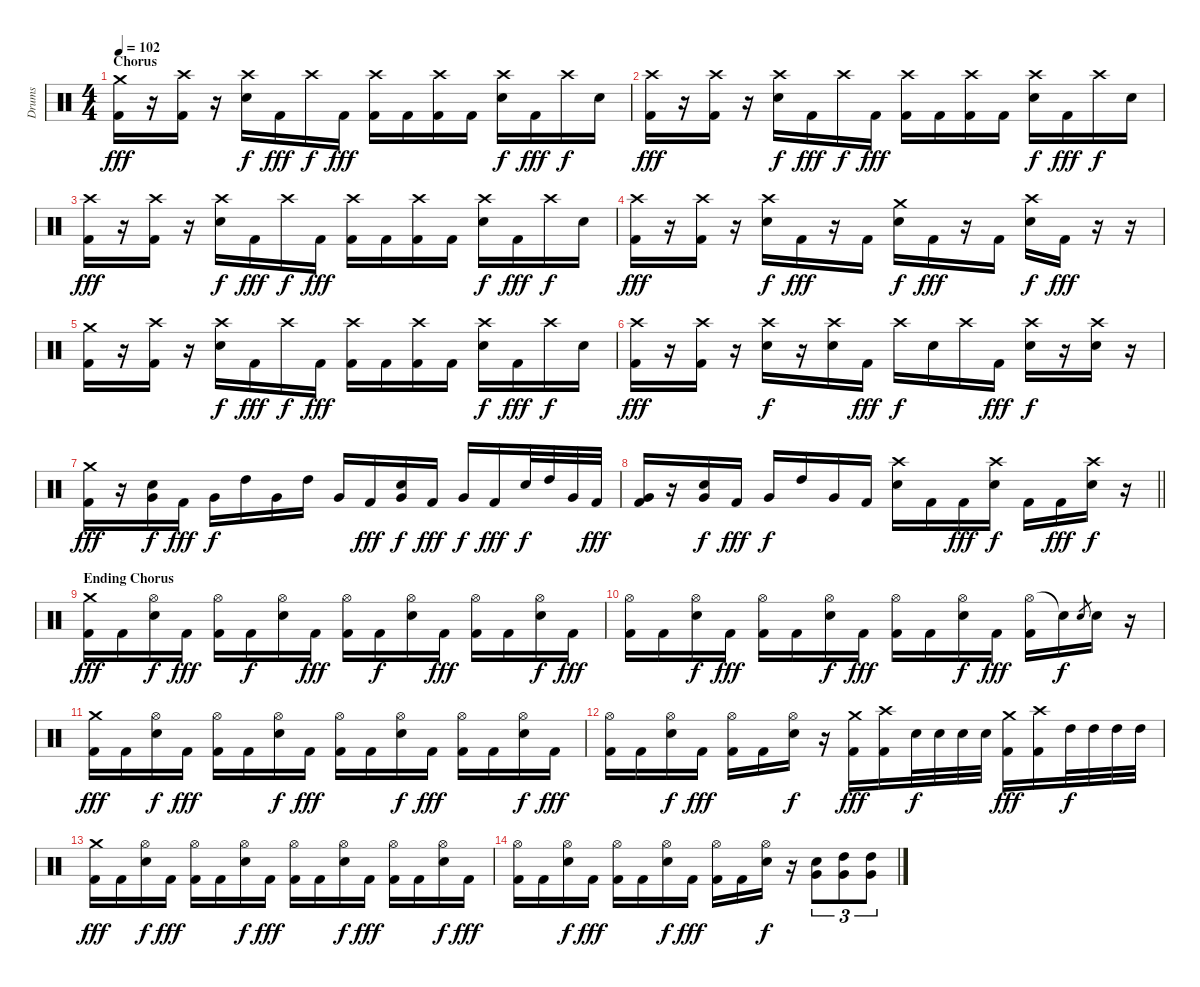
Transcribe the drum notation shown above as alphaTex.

\track ("Drums" "Drums") {instrument percussion}
\staff {score}
\articulation defaults
\ts (4 4)
\section ("" "Chorus")
\tempo 102
\clef neutral
\ks c
("Crash medium (hit)" "Kick (hit) 2").16{dy fff} r.16 ("Crash high (hit)" "Kick (hit) 2").16 r.16 ("Crash high (hit)" "Snare (hit) 2").16{dy f} "Kick (hit) 2".16{dy fff} "Crash high (hit)".16{dy f} "Kick (hit) 2".16{dy fff} ("Crash high (hit)" "Kick (hit) 2").16 "Kick (hit) 2".16 ("Crash high (hit)" "Kick (hit) 2").16 "Kick (hit) 2".16 ("Crash high (hit)" "Snare (hit) 2").16{dy f} "Kick (hit) 2".16{dy fff} "Crash high (hit)".16{dy f} "Snare (hit) 2".16 |
("Crash high (hit)" "Kick (hit) 2").16{dy fff} r.16 ("Crash high (hit)" "Kick (hit) 2").16 r.16 ("Crash high (hit)" "Snare (hit) 2").16{dy f} "Kick (hit) 2".16{dy fff} "Crash high (hit)".16{dy f} "Kick (hit) 2".16{dy fff} ("Crash high (hit)" "Kick (hit) 2").16 "Kick (hit) 2".16 ("Crash high (hit)" "Kick (hit) 2").16 "Kick (hit) 2".16 ("Crash high (hit)" "Snare (hit) 2").16{dy f} "Kick (hit) 2".16{dy fff} "Crash high (hit)".16{dy f} "Snare (hit) 2".16 |
("Crash high (hit)" "Kick (hit) 2").16{dy fff} r.16 ("Crash high (hit)" "Kick (hit) 2").16 r.16 ("Crash high (hit)" "Snare (hit) 2").16{dy f} "Kick (hit) 2".16{dy fff} "Crash high (hit)".16{dy f} "Kick (hit) 2".16{dy fff} ("Crash high (hit)" "Kick (hit) 2").16 "Kick (hit) 2".16 ("Crash high (hit)" "Kick (hit) 2").16 "Kick (hit) 2".16 ("Crash high (hit)" "Snare (hit) 2").16{dy f} "Kick (hit) 2".16{dy fff} "Crash high (hit)".16{dy f} "Snare (hit) 2".16 |
("Crash high (hit)" "Kick (hit) 2").16{dy fff} r.16 ("Crash high (hit)" "Kick (hit) 2").16 r.16 ("Crash high (hit)" "Snare (hit) 2").16{dy f} "Kick (hit) 2".16{dy fff} r.16 "Kick (hit) 2".16 ("Crash medium (hit)" "Snare (hit) 2").16{dy f} "Kick (hit) 2".16{dy fff} r.16 "Kick (hit) 2".16 ("Crash high (hit)" "Snare (hit) 2").16{dy f} "Kick (hit) 2".16{dy fff} r.16 r.16 |
("Crash medium (hit)" "Kick (hit) 2").16 r.16 ("Crash high (hit)" "Kick (hit) 2").16 r.16 ("Crash high (hit)" "Snare (hit) 2").16{dy f} "Kick (hit) 2".16{dy fff} "Crash high (hit)".16{dy f} "Kick (hit) 2".16{dy fff} ("Crash high (hit)" "Kick (hit) 2").16 "Kick (hit) 2".16 ("Crash high (hit)" "Kick (hit) 2").16 "Kick (hit) 2".16 ("Crash high (hit)" "Snare (hit) 2").16{dy f} "Kick (hit) 2".16{dy fff} "Crash high (hit)".16{dy f} "Snare (hit) 2".16 |
("Crash high (hit)" "Kick (hit) 2").16{dy fff} r.16 ("Crash high (hit)" "Kick (hit) 2").16 r.16 ("Crash high (hit)" "Snare (hit) 2").16{dy f} r.16 ("Crash high (hit)" "Snare (hit) 2").16 "Kick (hit) 2".16{dy fff} "Crash high (hit)".16{dy f} "Snare (hit) 2".16 "Crash high (hit)".16 "Kick (hit) 2".16{dy fff} ("Crash high (hit)" "Snare (hit) 2").16{dy f} r.16 ("Crash high (hit)" "Snare (hit) 2").16 r.16 |
("Crash medium (hit)" "Kick (hit) 2").16{dy fff} r.16 ("Snare (hit) 2" "Very Low Tom (hit)").16{dy f} "Kick (hit) 2".16{dy fff} "Very Low Tom (hit)".16{dy f} "High Tom (hit)".16 "Very Low Tom (hit)".16 "High Tom (hit)".16 "Very Low Tom (hit)".16 "Kick (hit) 2".16{dy fff} ("Snare (hit) 2" "Very Low Tom (hit)").16{dy f} "Kick (hit) 2".16{dy fff} "Very Low Tom (hit)".16{dy f} "Kick (hit) 2".16{dy fff} "Snare (hit) 2".32{dy f} "High Tom (hit)".32 "Very Low Tom (hit)".32 "Kick (hit) 2".32{dy fff} |
\barLineRight lightlight
("Very Low Tom (hit)" "Kick (hit) 2").16 r.16 ("Snare (hit) 2" "Very Low Tom (hit)").16{dy f} "Kick (hit) 2".16{dy fff} "Very Low Tom (hit)".16{dy f} "High Tom (hit)".16 "Very Low Tom (hit)".16 "Kick (hit) 2".16 ("Crash high (hit)" "Snare (hit) 2").16 "Kick (hit) 2".16 "Kick (hit) 2".16{dy fff} ("Crash high (hit)" "Snare (hit) 2").16{dy f} "Kick (hit) 2".16 "Kick (hit) 2".16{dy fff} ("Crash high (hit)" "Snare (hit) 2").16{dy f} r.16 |
\section ("" "Ending Chorus")
("Crash medium (hit)" "Kick (hit) 2").16{dy fff volume 13} "Kick (hit) 2".16 ("Hi-Hat (open)" "Snare (hit) 2").16{dy f} "Kick (hit) 2".16{dy fff} ("Hi-Hat (open)" "Kick (hit) 2").16 "Kick (hit) 2".16{dy f} ("Hi-Hat (open)" "Snare (hit) 2").16 "Kick (hit) 2".16{dy fff} ("Hi-Hat (open)" "Kick (hit) 2").16 "Kick (hit) 2".16{dy f} ("Hi-Hat (open)" "Snare (hit) 2").16 "Kick (hit) 2".16{dy fff} ("Hi-Hat (open)" "Kick (hit) 2").16 "Kick (hit) 2".16 ("Hi-Hat (open)" "Snare (hit) 2").16{dy f} "Kick (hit) 2".16{dy fff} |
("Hi-Hat (open)" "Kick (hit) 2").16 "Kick (hit) 2".16 ("Hi-Hat (open)" "Snare (hit) 2").16{dy f} "Kick (hit) 2".16{dy fff} ("Hi-Hat (open)" "Kick (hit) 2").16 "Kick (hit) 2".16 ("Hi-Hat (open)" "Snare (hit) 2").16{dy f} "Kick (hit) 2".16{dy fff} ("Hi-Hat (open)" "Kick (hit) 2").16 "Kick (hit) 2".16 ("Hi-Hat (open)" "Snare (hit) 2").16{dy f} "Kick (hit) 2".16{dy fff} ("Hi-Hat (open)" "Kick (hit) 2").16 "Snare (hit)"{t}.16{dy f} "Snare (hit) 2".8{gr} "Snare (hit) 2".16 r.16 |
("Crash medium (hit)" "Kick (hit) 2").16{dy fff} "Kick (hit) 2".16 ("Hi-Hat (open)" "Snare (hit) 2").16{dy f} "Kick (hit) 2".16{dy fff} ("Hi-Hat (open)" "Kick (hit) 2").16 "Kick (hit) 2".16 ("Hi-Hat (open)" "Snare (hit) 2").16{dy f} "Kick (hit) 2".16{dy fff} ("Hi-Hat (open)" "Kick (hit) 2").16 "Kick (hit) 2".16 ("Hi-Hat (open)" "Snare (hit) 2").16{dy f} "Kick (hit) 2".16{dy fff} ("Hi-Hat (open)" "Kick (hit) 2").16 "Kick (hit) 2".16 ("Hi-Hat (open)" "Snare (hit) 2").16{dy f} "Kick (hit) 2".16{dy fff} |
("Hi-Hat (open)" "Kick (hit) 2").16 "Kick (hit) 2".16 ("Hi-Hat (open)" "Snare (hit) 2").16{dy f} "Kick (hit) 2".16{dy fff} ("Hi-Hat (open)" "Kick (hit) 2").16 "Kick (hit) 2".16 ("Hi-Hat (open)" "Snare (hit) 2").16{dy f} r.16 ("Crash medium (hit)" "Kick (hit) 2").16{dy fff} ("Crash high (hit)" "Kick (hit) 2").16 "Snare (hit) 2".32{dy f} "Snare (hit) 2".32 "Snare (hit) 2".32 "Snare (hit) 2".32 ("Crash medium (hit)" "Kick (hit) 2").16{dy fff} ("Crash high (hit)" "Kick (hit) 2").16 "High Tom (hit)".32{dy f} "High Tom (hit)".32 "High Tom (hit)".32 "High Tom (hit)".32 |
("Crash medium (hit)" "Kick (hit) 2").16{dy fff} "Kick (hit) 2".16 ("Hi-Hat (open)" "Snare (hit) 2").16{dy f} "Kick (hit) 2".16{dy fff} ("Hi-Hat (open)" "Kick (hit) 2").16 "Kick (hit) 2".16 ("Hi-Hat (open)" "Snare (hit) 2").16{dy f} "Kick (hit) 2".16{dy fff} ("Hi-Hat (open)" "Kick (hit) 2").16 "Kick (hit) 2".16 ("Hi-Hat (open)" "Snare (hit) 2").16{dy f} "Kick (hit) 2".16{dy fff} ("Hi-Hat (open)" "Kick (hit) 2").16 "Kick (hit) 2".16 ("Hi-Hat (open)" "Snare (hit) 2").16{dy f} "Kick (hit) 2".16{dy fff} |
("Hi-Hat (open)" "Kick (hit) 2").16 "Kick (hit) 2".16 ("Hi-Hat (open)" "Snare (hit) 2").16{dy f} "Kick (hit) 2".16{dy fff} ("Hi-Hat (open)" "Kick (hit) 2").16 "Kick (hit) 2".16 ("Hi-Hat (open)" "Snare (hit) 2").16{dy f} "Kick (hit) 2".16{dy fff} ("Hi-Hat (open)" "Kick (hit) 2").16 "Kick (hit) 2".16 ("Hi-Hat (open)" "Snare (hit) 2").16{dy f} r.16 ("Snare (hit) 2" "Very Low Tom (hit)").8{tu (3 2)} ("High Tom (hit)" "Very Low Tom (hit)").8{tu (3 2)} ("High Tom (hit)" "Very Low Tom (hit)").8{tu (3 2)}
